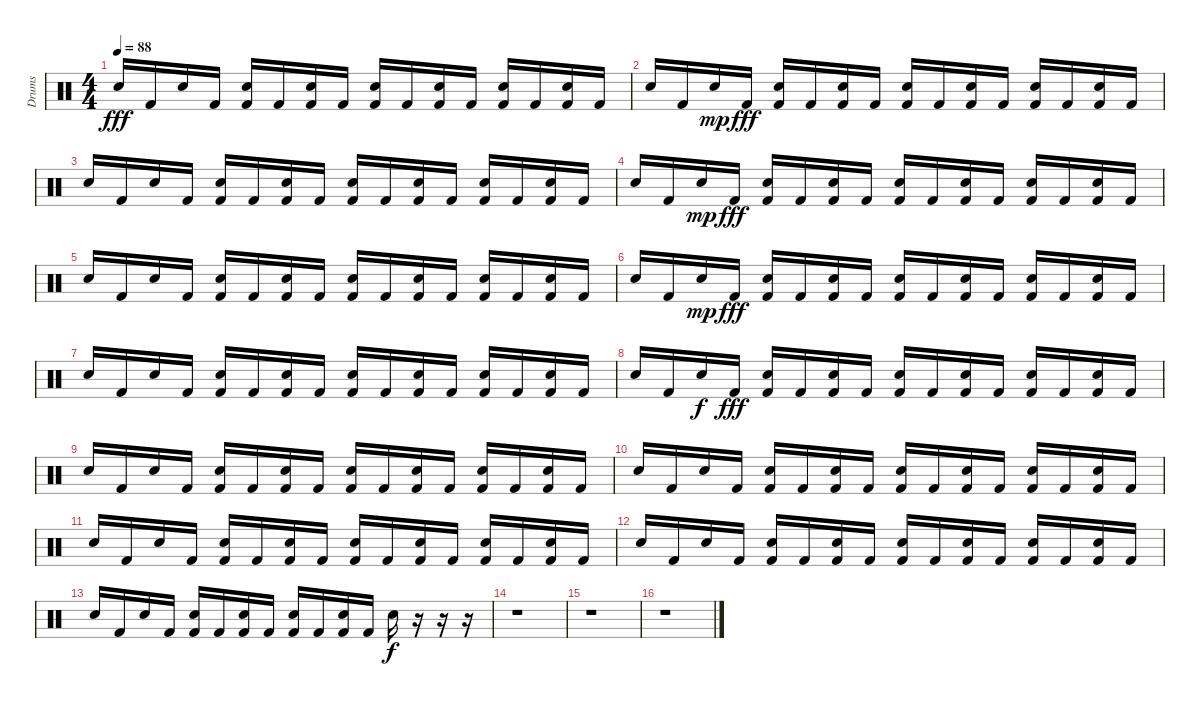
\track ("Drums" "Drums") {instrument percussion}
\staff {score}
\articulation defaults
\ts (4 4)
\tempo 88
\clef neutral
\ks c "Electric Snare (hit)".16{dy fff} "Kick (hit) 2".16 "Electric Snare (hit)".16 "Kick (hit) 2".16
("Electric Snare (hit)" "Kick (hit) 2").16 "Kick (hit) 2".16 ("Electric Snare (hit)" "Kick (hit) 2").16 "Kick (hit) 2".16 ("Electric Snare (hit)" "Kick (hit) 2").16 "Kick (hit) 2".16 ("Electric Snare (hit)" "Kick (hit) 2").16 "Kick (hit) 2".16 ("Electric Snare (hit)" "Kick (hit) 2").16 "Kick (hit) 2".16 ("Electric Snare (hit)" "Kick (hit) 2").16 "Kick (hit) 2".16 |
"Electric Snare (hit)".16 "Kick (hit) 2".16 "Electric Snare (hit)".16{dy mp} "Kick (hit) 2".16{dy fff} ("Electric Snare (hit)" "Kick (hit) 2").16 "Kick (hit) 2".16 ("Electric Snare (hit)" "Kick (hit) 2").16 "Kick (hit) 2".16 ("Electric Snare (hit)" "Kick (hit) 2").16 "Kick (hit) 2".16 ("Electric Snare (hit)" "Kick (hit) 2").16 "Kick (hit) 2".16 ("Electric Snare (hit)" "Kick (hit) 2").16 "Kick (hit) 2".16 ("Electric Snare (hit)" "Kick (hit) 2").16 "Kick (hit) 2".16 |
"Electric Snare (hit)".16 "Kick (hit) 2".16 "Electric Snare (hit)".16 "Kick (hit) 2".16 ("Electric Snare (hit)" "Kick (hit) 2").16 "Kick (hit) 2".16 ("Electric Snare (hit)" "Kick (hit) 2").16 "Kick (hit) 2".16 ("Electric Snare (hit)" "Kick (hit) 2").16 "Kick (hit) 2".16 ("Electric Snare (hit)" "Kick (hit) 2").16 "Kick (hit) 2".16 ("Electric Snare (hit)" "Kick (hit) 2").16 "Kick (hit) 2".16 ("Electric Snare (hit)" "Kick (hit) 2").16 "Kick (hit) 2".16 |
"Electric Snare (hit)".16 "Kick (hit) 2".16 "Electric Snare (hit)".16{dy mp} "Kick (hit) 2".16{dy fff} ("Electric Snare (hit)" "Kick (hit) 2").16 "Kick (hit) 2".16 ("Electric Snare (hit)" "Kick (hit) 2").16 "Kick (hit) 2".16 ("Electric Snare (hit)" "Kick (hit) 2").16 "Kick (hit) 2".16 ("Electric Snare (hit)" "Kick (hit) 2").16 "Kick (hit) 2".16 ("Electric Snare (hit)" "Kick (hit) 2").16 "Kick (hit) 2".16 ("Electric Snare (hit)" "Kick (hit) 2").16 "Kick (hit) 2".16 |
"Electric Snare (hit)".16 "Kick (hit) 2".16 "Electric Snare (hit)".16 "Kick (hit) 2".16 ("Electric Snare (hit)" "Kick (hit) 2").16 "Kick (hit) 2".16 ("Electric Snare (hit)" "Kick (hit) 2").16 "Kick (hit) 2".16 ("Electric Snare (hit)" "Kick (hit) 2").16 "Kick (hit) 2".16 ("Electric Snare (hit)" "Kick (hit) 2").16 "Kick (hit) 2".16 ("Electric Snare (hit)" "Kick (hit) 2").16 "Kick (hit) 2".16 ("Electric Snare (hit)" "Kick (hit) 2").16 "Kick (hit) 2".16 |
"Electric Snare (hit)".16 "Kick (hit) 2".16 "Electric Snare (hit)".16{dy mp} "Kick (hit) 2".16{dy fff} ("Electric Snare (hit)" "Kick (hit) 2").16 "Kick (hit) 2".16 ("Electric Snare (hit)" "Kick (hit) 2").16 "Kick (hit) 2".16 ("Electric Snare (hit)" "Kick (hit) 2").16 "Kick (hit) 2".16 ("Electric Snare (hit)" "Kick (hit) 2").16 "Kick (hit) 2".16 ("Electric Snare (hit)" "Kick (hit) 2").16 "Kick (hit) 2".16 ("Electric Snare (hit)" "Kick (hit) 2").16 "Kick (hit) 2".16 |
"Electric Snare (hit)".16 "Kick (hit) 2".16 "Electric Snare (hit)".16 "Kick (hit) 2".16 ("Electric Snare (hit)" "Kick (hit) 2").16 "Kick (hit) 2".16 ("Electric Snare (hit)" "Kick (hit) 2").16 "Kick (hit) 2".16 ("Electric Snare (hit)" "Kick (hit) 2").16 "Kick (hit) 2".16 ("Electric Snare (hit)" "Kick (hit) 2").16 "Kick (hit) 2".16 ("Electric Snare (hit)" "Kick (hit) 2").16 "Kick (hit) 2".16 ("Electric Snare (hit)" "Kick (hit) 2").16 "Kick (hit) 2".16 |
"Electric Snare (hit)".16 "Kick (hit) 2".16 "Electric Snare (hit)".16{dy f} "Kick (hit) 2".16{dy fff} ("Electric Snare (hit)" "Kick (hit) 2").16 "Kick (hit) 2".16 ("Electric Snare (hit)" "Kick (hit) 2").16 "Kick (hit) 2".16 ("Electric Snare (hit)" "Kick (hit) 2").16 "Kick (hit) 2".16 ("Electric Snare (hit)" "Kick (hit) 2").16 "Kick (hit) 2".16 ("Electric Snare (hit)" "Kick (hit) 2").16 "Kick (hit) 2".16 ("Electric Snare (hit)" "Kick (hit) 2").16 "Kick (hit) 2".16 |
"Electric Snare (hit)".16 "Kick (hit) 2".16 "Electric Snare (hit)".16 "Kick (hit) 2".16 ("Electric Snare (hit)" "Kick (hit) 2").16 "Kick (hit) 2".16 ("Electric Snare (hit)" "Kick (hit) 2").16 "Kick (hit) 2".16 ("Electric Snare (hit)" "Kick (hit) 2").16 "Kick (hit) 2".16 ("Electric Snare (hit)" "Kick (hit) 2").16 "Kick (hit) 2".16 ("Electric Snare (hit)" "Kick (hit) 2").16 "Kick (hit) 2".16 ("Electric Snare (hit)" "Kick (hit) 2").16 "Kick (hit) 2".16 |
"Electric Snare (hit)".16 "Kick (hit) 2".16 "Electric Snare (hit)".16 "Kick (hit) 2".16 ("Electric Snare (hit)" "Kick (hit) 2").16 "Kick (hit) 2".16 ("Electric Snare (hit)" "Kick (hit) 2").16 "Kick (hit) 2".16 ("Electric Snare (hit)" "Kick (hit) 2").16 "Kick (hit) 2".16 ("Electric Snare (hit)" "Kick (hit) 2").16 "Kick (hit) 2".16 ("Electric Snare (hit)" "Kick (hit) 2").16 "Kick (hit) 2".16 ("Electric Snare (hit)" "Kick (hit) 2").16 "Kick (hit) 2".16 |
"Electric Snare (hit)".16 "Kick (hit) 2".16 "Electric Snare (hit)".16 "Kick (hit) 2".16 ("Electric Snare (hit)" "Kick (hit) 2").16 "Kick (hit) 2".16 ("Electric Snare (hit)" "Kick (hit) 2").16 "Kick (hit) 2".16 ("Electric Snare (hit)" "Kick (hit) 2").16 "Kick (hit) 2".16 ("Electric Snare (hit)" "Kick (hit) 2").16 "Kick (hit) 2".16 ("Electric Snare (hit)" "Kick (hit) 2").16 "Kick (hit) 2".16 ("Electric Snare (hit)" "Kick (hit) 2").16 "Kick (hit) 2".16 |
"Electric Snare (hit)".16 "Kick (hit) 2".16 "Electric Snare (hit)".16 "Kick (hit) 2".16 ("Electric Snare (hit)" "Kick (hit) 2").16 "Kick (hit) 2".16 ("Electric Snare (hit)" "Kick (hit) 2").16 "Kick (hit) 2".16 ("Electric Snare (hit)" "Kick (hit) 2").16 "Kick (hit) 2".16 ("Electric Snare (hit)" "Kick (hit) 2").16 "Kick (hit) 2".16 ("Electric Snare (hit)" "Kick (hit) 2").16 "Kick (hit) 2".16 ("Electric Snare (hit)" "Kick (hit) 2").16 "Kick (hit) 2".16 |
"Electric Snare (hit)".16 "Kick (hit) 2".16 "Electric Snare (hit)".16 "Kick (hit) 2".16 ("Electric Snare (hit)" "Kick (hit) 2").16 "Kick (hit) 2".16 ("Electric Snare (hit)" "Kick (hit) 2").16 "Kick (hit) 2".16 ("Electric Snare (hit)" "Kick (hit) 2").16 "Kick (hit) 2".16 ("Electric Snare (hit)" "Kick (hit) 2").16 "Kick (hit) 2".16 "Electric Snare (hit)".16{dy f} r.16 r.16 r.16 |
r.1 |
r.1 |
r.1
